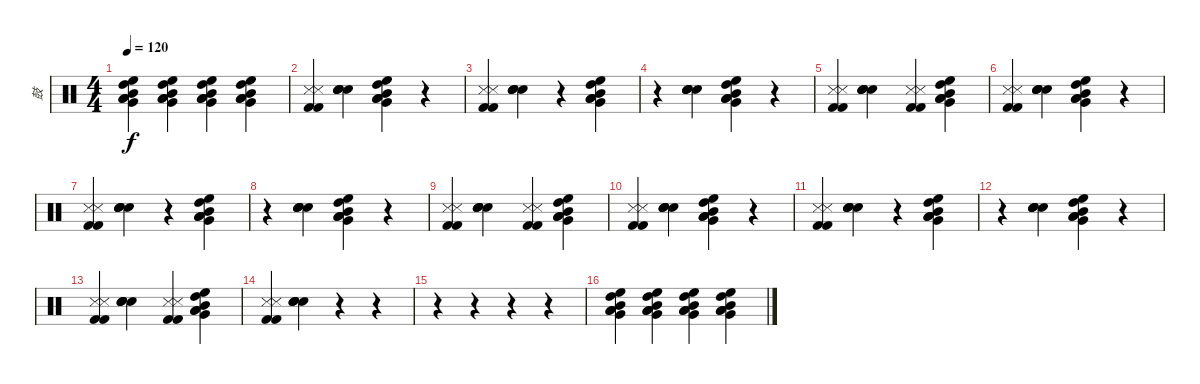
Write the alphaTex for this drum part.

\track ("鼓" "鼓") {instrument percussion}
\staff {score}
\articulation defaults
\ts (4 4)
\tempo 120
\clef neutral
\ks c
("High Floor Tom (hit)" "High Tom (hit)" "Mid Tom (hit)" "Low Tom (hit)" "Very Low Tom (hit)" "Low Floor Tom (hit)").4{dy f} ("High Floor Tom (hit)" "High Tom (hit)" "Mid Tom (hit)" "Low Tom (hit)" "Very Low Tom (hit)" "Low Floor Tom (hit)").4 ("High Floor Tom (hit)" "High Tom (hit)" "Mid Tom (hit)" "Low Tom (hit)" "Very Low Tom (hit)" "Low Floor Tom (hit)").4 ("High Floor Tom (hit)" "High Tom (hit)" "Mid Tom (hit)" "Low Tom (hit)" "Very Low Tom (hit)" "Low Floor Tom (hit)").4 |
("Snare (side stick) 3" "Kick (hit) 2" "Kick (hit) 2" "Snare (side stick) 3").4 ("Hand Clap (hit)" "Hand Clap (hit)" "Hand Clap (hit)" "Hand Clap (hit)").4 ("High Floor Tom (hit)" "High Tom (hit)" "Mid Tom (hit)" "Low Tom (hit)" "Very Low Tom (hit)" "Low Floor Tom (hit)").4 r.4 |
("Snare (side stick) 3" "Kick (hit) 2" "Kick (hit) 2" "Snare (side stick) 3").4 ("Hand Clap (hit)" "Hand Clap (hit)" "Hand Clap (hit)" "Hand Clap (hit)").4 r.4 ("High Floor Tom (hit)" "High Tom (hit)" "Mid Tom (hit)" "Low Tom (hit)" "Very Low Tom (hit)" "Low Floor Tom (hit)").4 |
r.4 ("Hand Clap (hit)" "Hand Clap (hit)" "Hand Clap (hit)" "Hand Clap (hit)").4 ("High Floor Tom (hit)" "High Tom (hit)" "Mid Tom (hit)" "Low Tom (hit)" "Very Low Tom (hit)" "Low Floor Tom (hit)").4 r.4 |
("Snare (side stick) 3" "Kick (hit) 2" "Kick (hit) 2" "Snare (side stick) 3").4 ("Hand Clap (hit)" "Hand Clap (hit)" "Hand Clap (hit)" "Hand Clap (hit)").4 ("Snare (side stick) 3" "Kick (hit) 2" "Kick (hit) 2" "Snare (side stick) 3").4 ("High Floor Tom (hit)" "High Tom (hit)" "Mid Tom (hit)" "Low Tom (hit)" "Very Low Tom (hit)" "Low Floor Tom (hit)").4 |
("Snare (side stick) 3" "Kick (hit) 2" "Kick (hit) 2" "Snare (side stick) 3").4 ("Hand Clap (hit)" "Hand Clap (hit)" "Hand Clap (hit)" "Hand Clap (hit)").4 ("High Floor Tom (hit)" "High Tom (hit)" "Mid Tom (hit)" "Low Tom (hit)" "Very Low Tom (hit)" "Low Floor Tom (hit)").4 r.4 |
("Snare (side stick) 3" "Kick (hit) 2" "Kick (hit) 2" "Snare (side stick) 3").4 ("Hand Clap (hit)" "Hand Clap (hit)" "Hand Clap (hit)" "Hand Clap (hit)").4 r.4 ("High Floor Tom (hit)" "High Tom (hit)" "Mid Tom (hit)" "Low Tom (hit)" "Very Low Tom (hit)" "Low Floor Tom (hit)").4 |
r.4 ("Hand Clap (hit)" "Hand Clap (hit)" "Hand Clap (hit)" "Hand Clap (hit)").4 ("High Floor Tom (hit)" "High Tom (hit)" "Mid Tom (hit)" "Low Tom (hit)" "Very Low Tom (hit)" "Low Floor Tom (hit)").4 r.4 |
("Snare (side stick) 3" "Kick (hit) 2" "Kick (hit) 2" "Snare (side stick) 3").4 ("Hand Clap (hit)" "Hand Clap (hit)" "Hand Clap (hit)" "Hand Clap (hit)").4 ("Snare (side stick) 3" "Kick (hit) 2" "Kick (hit) 2" "Snare (side stick) 3").4 ("High Floor Tom (hit)" "High Tom (hit)" "Mid Tom (hit)" "Low Tom (hit)" "Very Low Tom (hit)" "Low Floor Tom (hit)").4 |
("Snare (side stick) 3" "Kick (hit) 2" "Kick (hit) 2" "Snare (side stick) 3").4 ("Hand Clap (hit)" "Hand Clap (hit)" "Hand Clap (hit)" "Hand Clap (hit)").4 ("High Floor Tom (hit)" "High Tom (hit)" "Mid Tom (hit)" "Low Tom (hit)" "Very Low Tom (hit)" "Low Floor Tom (hit)").4 r.4 |
("Snare (side stick) 3" "Kick (hit) 2" "Kick (hit) 2" "Snare (side stick) 3").4 ("Hand Clap (hit)" "Hand Clap (hit)" "Hand Clap (hit)" "Hand Clap (hit)").4 r.4 ("High Floor Tom (hit)" "High Tom (hit)" "Mid Tom (hit)" "Low Tom (hit)" "Very Low Tom (hit)" "Low Floor Tom (hit)").4 |
r.4 ("Hand Clap (hit)" "Hand Clap (hit)" "Hand Clap (hit)" "Hand Clap (hit)").4 ("High Floor Tom (hit)" "High Tom (hit)" "Mid Tom (hit)" "Low Tom (hit)" "Very Low Tom (hit)" "Low Floor Tom (hit)").4 r.4 |
("Snare (side stick) 3" "Kick (hit) 2" "Kick (hit) 2" "Snare (side stick) 3").4 ("Hand Clap (hit)" "Hand Clap (hit)" "Hand Clap (hit)" "Hand Clap (hit)").4 ("Snare (side stick) 3" "Kick (hit) 2" "Kick (hit) 2" "Snare (side stick) 3").4 ("High Floor Tom (hit)" "High Tom (hit)" "Mid Tom (hit)" "Low Tom (hit)" "Very Low Tom (hit)" "Low Floor Tom (hit)").4 |
("Snare (side stick) 3" "Kick (hit) 2" "Kick (hit) 2" "Snare (side stick) 3").4 ("Hand Clap (hit)" "Hand Clap (hit)" "Hand Clap (hit)" "Hand Clap (hit)").4 r.4 r.4 |
r.4 r.4 r.4 r.4 |
("High Floor Tom (hit)" "High Tom (hit)" "Mid Tom (hit)" "Low Tom (hit)" "Very Low Tom (hit)" "Low Floor Tom (hit)").4 ("High Floor Tom (hit)" "High Tom (hit)" "Mid Tom (hit)" "Low Tom (hit)" "Very Low Tom (hit)" "Low Floor Tom (hit)").4 ("High Floor Tom (hit)" "High Tom (hit)" "Mid Tom (hit)" "Low Tom (hit)" "Very Low Tom (hit)" "Low Floor Tom (hit)").4 ("High Floor Tom (hit)" "High Tom (hit)" "Mid Tom (hit)" "Low Tom (hit)" "Very Low Tom (hit)" "Low Floor Tom (hit)").4
